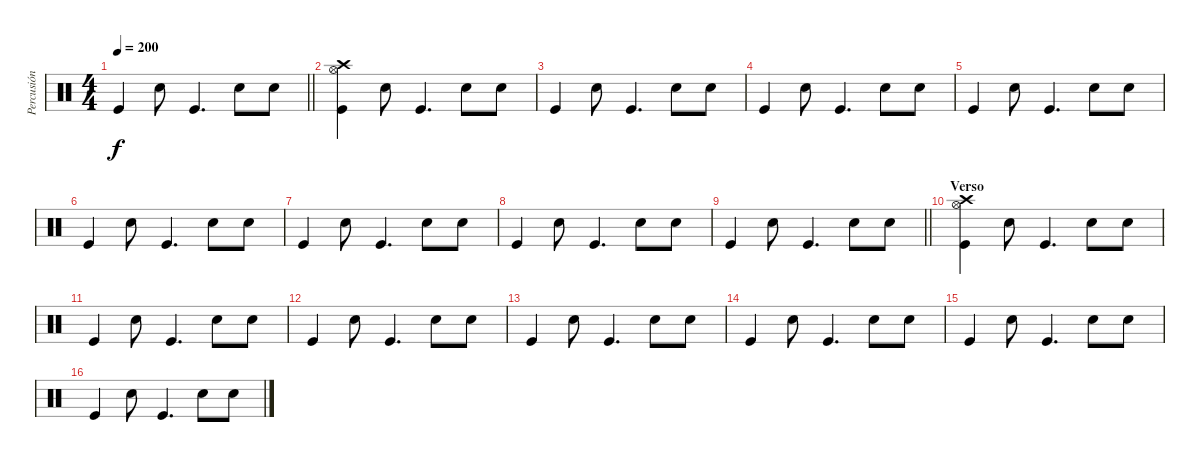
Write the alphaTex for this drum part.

\track ("Percusión" "Percusión") {instrument percussion}
\staff {score}
\articulation defaults
\ts (4 4)
\tempo 200
\clef neutral
\barLineRight lightlight
\ks c "Kick (hit)".4{dy f} "Snare (hit) 2".8 "Kick (hit)".4{d} "Snare (hit) 2".8 "Snare (hit) 2".8
|
\section ("" "")
("Hi-Hat (open)" "Crash high (hit)" "Kick (hit)").4 "Snare (hit) 2".8 "Kick (hit)".4{d} "Snare (hit) 2".8 "Snare (hit) 2".8 |
"Kick (hit)".4 "Snare (hit) 2".8 "Kick (hit)".4{d} "Snare (hit) 2".8 "Snare (hit) 2".8 |
"Kick (hit)".4 "Snare (hit) 2".8 "Kick (hit)".4{d} "Snare (hit) 2".8 "Snare (hit) 2".8 |
"Kick (hit)".4 "Snare (hit) 2".8 "Kick (hit)".4{d} "Snare (hit) 2".8 "Snare (hit) 2".8 |
"Kick (hit)".4 "Snare (hit) 2".8 "Kick (hit)".4{d} "Snare (hit) 2".8 "Snare (hit) 2".8 |
"Kick (hit)".4 "Snare (hit) 2".8 "Kick (hit)".4{d} "Snare (hit) 2".8 "Snare (hit) 2".8 |
"Kick (hit)".4 "Snare (hit) 2".8 "Kick (hit)".4{d} "Snare (hit) 2".8 "Snare (hit) 2".8 |
\barLineRight lightlight "Kick (hit)".4 "Snare (hit) 2".8 "Kick (hit)".4{d} "Snare (hit) 2".8 "Snare (hit) 2".8
|
\section ("" "Verso")
("Hi-Hat (open)" "Crash high (hit)" "Kick (hit)").4 "Snare (hit) 2".8 "Kick (hit)".4{d} "Snare (hit) 2".8 "Snare (hit) 2".8 |
"Kick (hit)".4 "Snare (hit) 2".8 "Kick (hit)".4{d} "Snare (hit) 2".8 "Snare (hit) 2".8 |
"Kick (hit)".4 "Snare (hit) 2".8 "Kick (hit)".4{d} "Snare (hit) 2".8 "Snare (hit) 2".8 |
"Kick (hit)".4 "Snare (hit) 2".8 "Kick (hit)".4{d} "Snare (hit) 2".8 "Snare (hit) 2".8 |
"Kick (hit)".4 "Snare (hit) 2".8 "Kick (hit)".4{d} "Snare (hit) 2".8 "Snare (hit) 2".8 |
"Kick (hit)".4 "Snare (hit) 2".8 "Kick (hit)".4{d} "Snare (hit) 2".8 "Snare (hit) 2".8 |
"Kick (hit)".4 "Snare (hit) 2".8 "Kick (hit)".4{d} "Snare (hit) 2".8 "Snare (hit) 2".8
